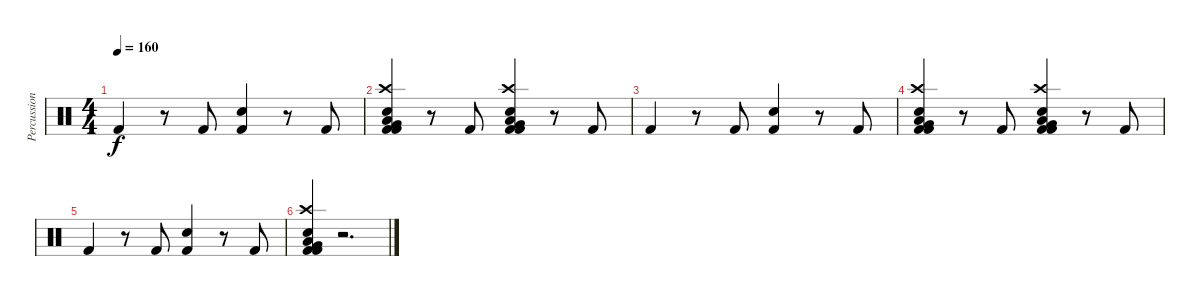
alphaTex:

\track ("Percussion" "Percussion") {instrument percussion}
\staff {score}
\articulation defaults
\ts (4 4)
\tempo 160
\clef neutral
\ks c "Kick (hit) 2".4{dy f}
r.8 "Kick (hit) 2".8 ("Kick (hit) 2" "Snare (hit) 2").4 r.8 "Kick (hit) 2".8 |
("Crash high (hit)" "Kick (hit) 2" "Kick (hit) 2" "Very Low Tom (hit)" "Low Tom (hit)" "Snare (hit) 2").4 r.8 "Kick (hit) 2".8 ("Crash high (hit)" "Kick (hit) 2" "Kick (hit) 2" "Very Low Tom (hit)" "Low Tom (hit)" "Snare (hit) 2").4 r.8 "Kick (hit) 2".8 |
"Kick (hit) 2".4 r.8 "Kick (hit) 2".8 ("Kick (hit) 2" "Snare (hit) 2").4 r.8 "Kick (hit) 2".8 |
("Crash high (hit)" "Kick (hit) 2" "Kick (hit) 2" "Very Low Tom (hit)" "Low Tom (hit)" "Snare (hit) 2").4 r.8 "Kick (hit) 2".8 ("Crash high (hit)" "Kick (hit) 2" "Kick (hit) 2" "Very Low Tom (hit)" "Low Tom (hit)" "Snare (hit) 2").4 r.8 "Kick (hit) 2".8 |
"Kick (hit) 2".4 r.8 "Kick (hit) 2".8 ("Kick (hit) 2" "Snare (hit) 2").4 r.8 "Kick (hit) 2".8 |
("Crash high (hit)" "Kick (hit) 2" "Kick (hit) 2" "Very Low Tom (hit)" "Low Tom (hit)" "Snare (hit) 2").4 r.2{d}
